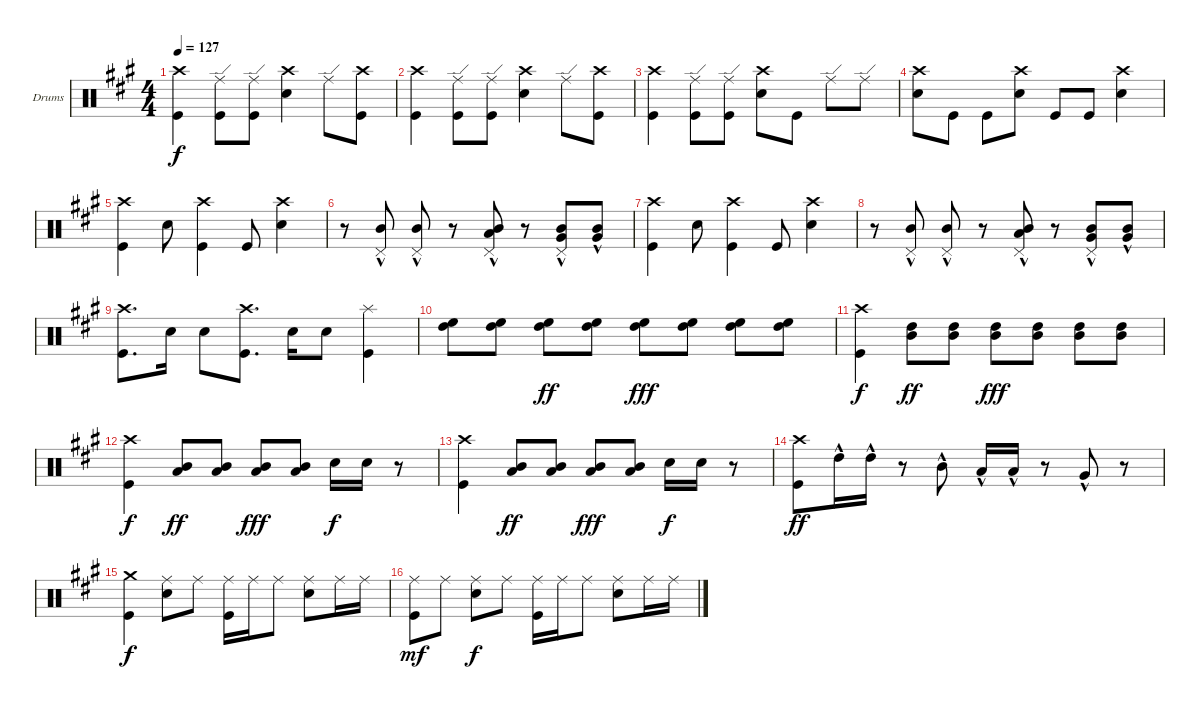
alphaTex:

\bracketExtendMode groupsimilarinstruments
\firstSystemTrackNameOrientation horizontal
\otherSystemsTrackNameOrientation horizontal
\track ("Drumkit" "Drums") {instrument percussion}
\staff {score}
\articulation defaults
\ts (4 4)
\tempo 127
\clef neutral
\ks f#minor
("Kick (hit)" "Crash high (hit)").4{dy f} ("Ride (edge)" "Kick (hit)").8 ("Ride (edge)" "Kick (hit)").8 ("Snare (hit) 2" "Crash high (hit)").4 "Ride (edge)".8 ("Kick (hit)" "Crash high (hit)").8 |
("Kick (hit)" "Crash high (hit)").4 ("Ride (edge)" "Kick (hit)").8 ("Ride (edge)" "Kick (hit)").8 ("Snare (hit) 2" "Crash high (hit)").4 "Ride (edge)".8 ("Kick (hit)" "Crash high (hit)").8 |
("Kick (hit)" "Crash high (hit)").4 ("Ride (edge)" "Kick (hit)").8 ("Ride (edge)" "Kick (hit)").8 ("Snare (hit) 2" "Crash high (hit)").8 "Kick (hit)".8 "Ride (edge)".8 "Ride (edge)".8 |
("Crash high (hit)" "Snare (hit) 2").8 "Kick (hit)".8 "Kick (hit)".8 ("Crash high (hit)" "Snare (hit) 2").8 "Kick (hit)".8 "Kick (hit)".8 ("Snare (hit) 2" "Crash high (hit)").4 |
("Crash high (hit)" "Kick (hit)").4 "Snare (hit) 2".8 ("Kick (hit)" "Crash high (hit)").4 "Kick (hit)".8 ("Snare (hit) 2" "Crash high (hit)").4 |
r.8 ("Pedal Hi-Hat (hit)" "Mid Tom (hit)"{hac}).8 ("Mid Tom (hit)" "Pedal Hi-Hat (hit)"{hac}).8 r.8 ("Low Tom (hit)" "Pedal Hi-Hat (hit)"{hac} "Mid Tom (hit)").8 r.8 ("Very Low Tom (hit)"{hac} "Mid Tom (hit)" "Pedal Hi-Hat (hit)").8 ("Very Low Tom (hit)"{hac} "Mid Tom (hit)").8 |
("Crash high (hit)" "Kick (hit)").4 "Snare (hit) 2".8 ("Kick (hit)" "Crash high (hit)").4 "Kick (hit)".8 ("Snare (hit) 2" "Crash high (hit)").4 |
r.8 ("Pedal Hi-Hat (hit)" "Mid Tom (hit)"{hac}).8 ("Mid Tom (hit)" "Pedal Hi-Hat (hit)"{hac}).8 r.8 ("Low Tom (hit)" "Pedal Hi-Hat (hit)"{hac} "Mid Tom (hit)").8 r.8 ("Very Low Tom (hit)"{hac} "Mid Tom (hit)" "Pedal Hi-Hat (hit)").8 ("Very Low Tom (hit)"{hac} "Mid Tom (hit)").8 |
("Crash high (hit)" "Kick (hit)").8{d} "Snare (hit) 2".16 "Snare (hit) 2".8 ("Crash high (hit)" "Kick (hit)").8{d} "Snare (hit) 2".16 "Snare (hit) 2".8 ("Kick (hit)" "Splash (hit)").4 |
("High Tom (hit)" "High Floor Tom (hit)").8 ("High Tom (hit)" "High Floor Tom (hit)").8 ("High Tom (hit)" "High Floor Tom (hit)").8{dy ff} ("High Tom (hit)" "High Floor Tom (hit)").8 ("High Tom (hit)" "High Floor Tom (hit)").8{dy fff} ("High Tom (hit)" "High Floor Tom (hit)").8 ("High Tom (hit)" "High Floor Tom (hit)").8 ("High Tom (hit)" "High Floor Tom (hit)").8 |
("Crash high (hit)" "Kick (hit)").4{dy f} ("Mid Tom (hit)" "High Tom (hit)").8{dy ff} ("Mid Tom (hit)" "High Tom (hit)").8 ("Mid Tom (hit)" "High Tom (hit)").8{dy fff} ("Mid Tom (hit)" "High Tom (hit)").8 ("Mid Tom (hit)" "High Tom (hit)").8 ("Mid Tom (hit)" "High Tom (hit)").8 |
("Crash high (hit)" "Kick (hit)").4{dy f} ("Low Tom (hit)" "Mid Tom (hit)").8{dy ff} ("Low Tom (hit)" "Mid Tom (hit)").8 ("Low Tom (hit)" "Mid Tom (hit)").8{dy fff} ("Low Tom (hit)" "Mid Tom (hit)").8 "Snare (hit) 2".16{dy f} "Snare (hit) 2".16 r.8 |
("Crash high (hit)" "Kick (hit)").4 ("Low Tom (hit)" "Mid Tom (hit)").8{dy ff} ("Low Tom (hit)" "Mid Tom (hit)").8 ("Low Tom (hit)" "Mid Tom (hit)").8{dy fff} ("Low Tom (hit)" "Mid Tom (hit)").8 "Snare (hit) 2".16{dy f} "Snare (hit) 2".16 r.8 |
("Crash high (hit)" "Kick (hit)").8{dy ff} "High Tom (hit)"{hac}.16 "High Tom (hit)"{hac}.16 r.8 "Mid Tom (hit)"{hac}.8 "Low Tom (hit)"{hac}.16 "Low Tom (hit)"{hac}.16 r.8 "Very Low Tom (hit)"{hac}.8 r.8 |
("Crash medium (hit)" "Kick (hit)").4{dy f} ("Snare (hit) 2" "Ride (middle)").8 "Ride (middle)".8 ("Ride (middle)" "Kick (hit)").16 "Ride (middle)".16 "Ride (middle)".8 ("Ride (middle)" "Snare (hit) 2").8 "Ride (middle)".16 "Ride (middle)".16 |
("Kick (hit)" "Ride (middle)").8{dy mf} "Ride (middle)".8 ("Snare (hit) 2" "Ride (middle)").8{dy f} "Ride (middle)".8 ("Ride (middle)" "Kick (hit)").16 "Ride (middle)".16 "Ride (middle)".8 ("Ride (middle)" "Snare (hit) 2").8 "Ride (middle)".16 "Ride (middle)".16
